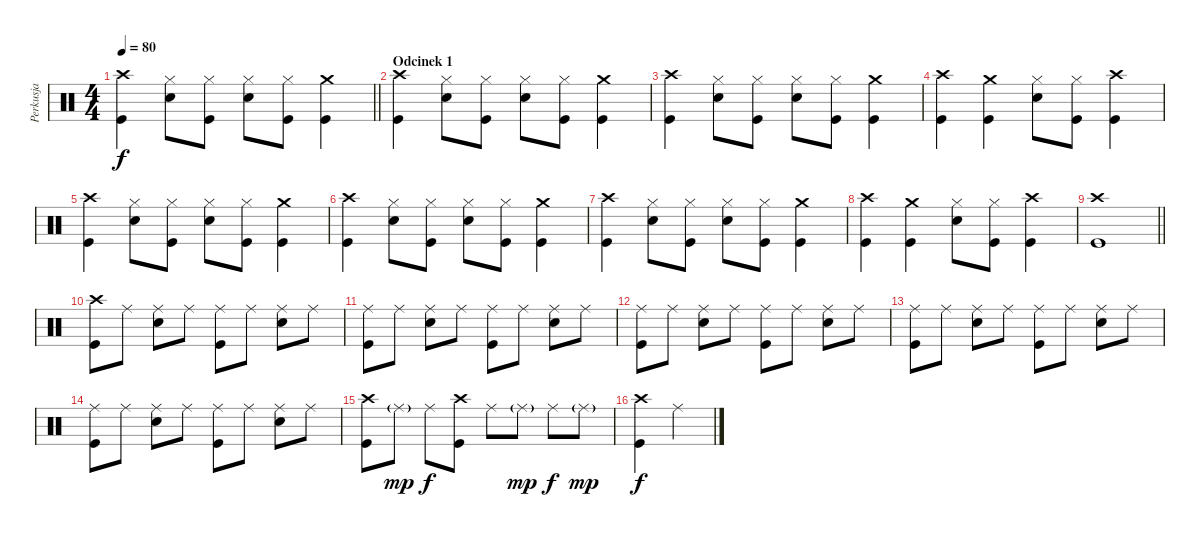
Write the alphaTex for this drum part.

\track ("Perkusja" "Perkusja") {instrument percussion}
\staff {score}
\articulation defaults
\ts (4 4)
\tempo 80
\clef neutral
\barLineRight lightlight
\ks c
("Crash high (hit)" "Kick (hit)").4{dy f} ("Snare (hit) 2" "Hi-Hat (closed)").8 ("Kick (hit)" "Hi-Hat (closed)").8 ("Snare (hit) 2" "Hi-Hat (closed)").8 ("Kick (hit)" "Hi-Hat (closed)").8 ("Crash medium (hit)" "Kick (hit)").4 |
\section ("" "Odcinek 1")
("Crash high (hit)" "Kick (hit)").4 ("Snare (hit) 2" "Hi-Hat (closed)").8 ("Kick (hit)" "Hi-Hat (closed)").8 ("Snare (hit) 2" "Hi-Hat (closed)").8 ("Kick (hit)" "Hi-Hat (closed)").8 ("Crash medium (hit)" "Kick (hit)").4 |
("Crash high (hit)" "Kick (hit)").4 ("Snare (hit) 2" "Hi-Hat (closed)").8 ("Kick (hit)" "Hi-Hat (closed)").8 ("Snare (hit) 2" "Hi-Hat (closed)").8 ("Kick (hit)" "Hi-Hat (closed)").8 ("Crash medium (hit)" "Kick (hit)").4 |
("Crash high (hit)" "Kick (hit)").4 ("Crash medium (hit)" "Kick (hit)").4 ("Hi-Hat (closed)" "Snare (hit) 2").8 ("Kick (hit)" "Hi-Hat (closed)").8 ("Kick (hit)" "Crash high (hit)").4 |
("Crash high (hit)" "Kick (hit)").4 ("Snare (hit) 2" "Hi-Hat (closed)").8 ("Kick (hit)" "Hi-Hat (closed)").8 ("Snare (hit) 2" "Hi-Hat (closed)").8 ("Kick (hit)" "Hi-Hat (closed)").8 ("Crash medium (hit)" "Kick (hit)").4 |
("Crash high (hit)" "Kick (hit)").4 ("Snare (hit) 2" "Hi-Hat (closed)").8 ("Kick (hit)" "Hi-Hat (closed)").8 ("Snare (hit) 2" "Hi-Hat (closed)").8 ("Kick (hit)" "Hi-Hat (closed)").8 ("Crash medium (hit)" "Kick (hit)").4 |
("Crash high (hit)" "Kick (hit)").4 ("Snare (hit) 2" "Hi-Hat (closed)").8 ("Kick (hit)" "Hi-Hat (closed)").8 ("Snare (hit) 2" "Hi-Hat (closed)").8 ("Kick (hit)" "Hi-Hat (closed)").8 ("Crash medium (hit)" "Kick (hit)").4 |
("Crash high (hit)" "Kick (hit)").4 ("Crash medium (hit)" "Kick (hit)").4 ("Hi-Hat (closed)" "Snare (hit) 2").8 ("Kick (hit)" "Hi-Hat (closed)").8 ("Kick (hit)" "Crash high (hit)").4 |
\barLineRight lightlight
("Crash high (hit)" "Kick (hit)").1 |
("Kick (hit)" "Crash high (hit)").8 "Ride (middle)".8 ("Ride (middle)" "Snare (hit) 2").8 "Ride (middle)".8 ("Kick (hit)" "Ride (middle)").8 "Ride (middle)".8 ("Ride (middle)" "Snare (hit) 2").8 "Ride (middle)".8 |
("Kick (hit)" "Ride (middle)").8 "Ride (middle)".8 ("Ride (middle)" "Snare (hit) 2").8 "Ride (middle)".8 ("Kick (hit)" "Ride (middle)").8 "Ride (middle)".8 ("Ride (middle)" "Snare (hit) 2").8 "Ride (middle)".8 |
("Kick (hit)" "Ride (middle)").8 "Ride (middle)".8 ("Ride (middle)" "Snare (hit) 2").8 "Ride (middle)".8 ("Kick (hit)" "Ride (middle)").8 "Ride (middle)".8 ("Ride (middle)" "Snare (hit) 2").8 "Ride (middle)".8 |
("Kick (hit)" "Ride (middle)").8 "Ride (middle)".8 ("Ride (middle)" "Snare (hit) 2").8 "Ride (middle)".8 ("Kick (hit)" "Ride (middle)").8 "Ride (middle)".8 ("Ride (middle)" "Snare (hit) 2").8 "Ride (middle)".8 |
("Kick (hit)" "Ride (middle)").8 "Ride (middle)".8 ("Ride (middle)" "Snare (hit) 2").8 "Ride (middle)".8 ("Kick (hit)" "Ride (middle)").8 "Ride (middle)".8 ("Ride (middle)" "Snare (hit) 2").8 "Ride (middle)".8 |
("Kick (hit)" "Crash high (hit)").8 "Ride (middle)"{g}.8{dy mp} "Ride (middle)".8{dy f} ("Kick (hit)" "Crash high (hit)").8 "Ride (middle)".8 "Ride (middle)"{g}.8{dy mp} "Ride (middle)".8{dy f} "Ride (middle)"{g}.8{dy mp} |
("Kick (hit)" "Crash high (hit)").4{dy f} "Ride (middle)".4
